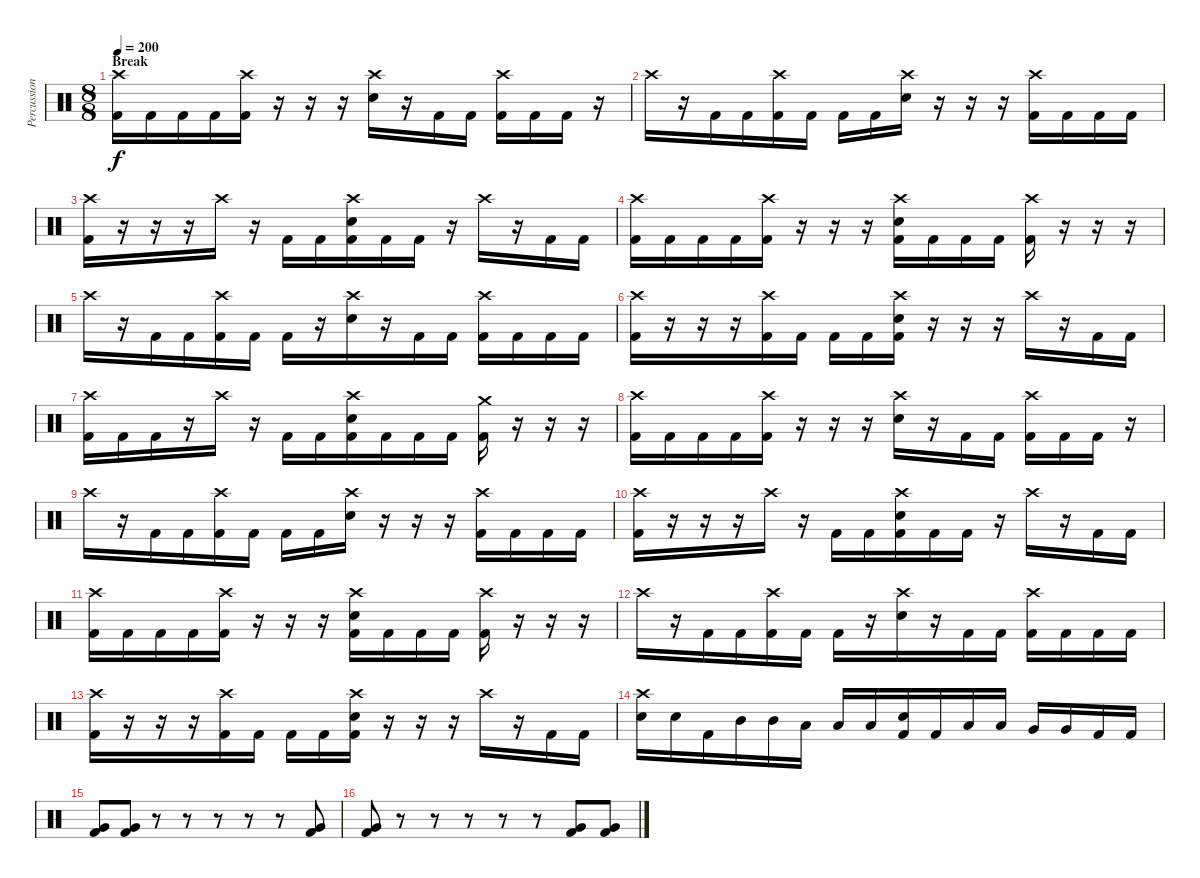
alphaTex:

\track ("Percussions" "Percussion") {instrument percussion}
\staff {score}
\articulation defaults
\ts (8 8)
\section ("" "Break")
\tempo 200
\clef neutral
\ks c
("Crash high (hit)" "Kick (hit) 2").16{dy f} "Kick (hit) 2".16 "Kick (hit) 2".16 "Kick (hit) 2".16 ("Crash high (hit)" "Kick (hit) 2").16 r.16 r.16 r.16 ("Crash high (hit)" "Electric Snare (hit)").16 r.16 "Kick (hit) 2".16 "Kick (hit) 2".16 ("Crash high (hit)" "Kick (hit) 2").16 "Kick (hit) 2".16 "Kick (hit) 2".16 r.16 |
"Crash high (hit)".16 r.16 "Kick (hit) 2".16 "Kick (hit) 2".16 ("Crash high (hit)" "Kick (hit) 2").16 "Kick (hit) 2".16 "Kick (hit) 2".16 "Kick (hit) 2".16 ("Crash high (hit)" "Electric Snare (hit)").16 r.16 r.16 r.16 ("Crash high (hit)" "Kick (hit) 2").16 "Kick (hit) 2".16 "Kick (hit) 2".16 "Kick (hit) 2".16 |
("Crash high (hit)" "Kick (hit) 2").16 r.16 r.16 r.16 "Crash high (hit)".16 r.16 "Kick (hit) 2".16 "Kick (hit) 2".16 ("Crash high (hit)" "Electric Snare (hit)" "Kick (hit) 2").16 "Kick (hit) 2".16 "Kick (hit) 2".16 r.16 "Crash high (hit)".16 r.16 "Kick (hit) 2".16 "Kick (hit) 2".16 |
("Crash high (hit)" "Kick (hit) 2").16 "Kick (hit) 2".16 "Kick (hit) 2".16 "Kick (hit) 2".16 ("Crash high (hit)" "Kick (hit) 2").16 r.16 r.16 r.16 ("Crash high (hit)" "Electric Snare (hit)" "Kick (hit) 2").16 "Kick (hit) 2".16 "Kick (hit) 2".16 "Kick (hit) 2".16 ("Crash high (hit)" "Kick (hit) 2").16 r.16 r.16 r.16 |
"Crash high (hit)".16 r.16 "Kick (hit) 2".16 "Kick (hit) 2".16 ("Crash high (hit)" "Kick (hit) 2").16 "Kick (hit) 2".16 "Kick (hit) 2".16 r.16 ("Crash high (hit)" "Electric Snare (hit)").16 r.16 "Kick (hit) 2".16 "Kick (hit) 2".16 ("Crash high (hit)" "Kick (hit) 2").16 "Kick (hit) 2".16 "Kick (hit) 2".16 "Kick (hit) 2".16 |
("Crash high (hit)" "Kick (hit) 2").16 r.16 r.16 r.16 ("Crash high (hit)" "Kick (hit) 2").16 "Kick (hit) 2".16 "Kick (hit) 2".16 "Kick (hit) 2".16 ("Crash high (hit)" "Electric Snare (hit)" "Kick (hit) 2").16 r.16 r.16 r.16 "Crash high (hit)".16 r.16 "Kick (hit) 2".16 "Kick (hit) 2".16 |
("Crash high (hit)" "Kick (hit) 2").16 "Kick (hit) 2".16 "Kick (hit) 2".16 r.16 "Crash high (hit)".16 r.16 "Kick (hit) 2".16 "Kick (hit) 2".16 ("Crash high (hit)" "Electric Snare (hit)" "Kick (hit) 2").16 "Kick (hit) 2".16 "Kick (hit) 2".16 "Kick (hit) 2".16 ("Crash medium (hit)" "Kick (hit) 2").16 r.16 r.16 r.16 |
("Crash high (hit)" "Kick (hit) 2").16 "Kick (hit) 2".16 "Kick (hit) 2".16 "Kick (hit) 2".16 ("Crash high (hit)" "Kick (hit) 2").16 r.16 r.16 r.16 ("Crash high (hit)" "Electric Snare (hit)").16 r.16 "Kick (hit) 2".16 "Kick (hit) 2".16 ("Crash high (hit)" "Kick (hit) 2").16 "Kick (hit) 2".16 "Kick (hit) 2".16 r.16 |
"Crash high (hit)".16 r.16 "Kick (hit) 2".16 "Kick (hit) 2".16 ("Crash high (hit)" "Kick (hit) 2").16 "Kick (hit) 2".16 "Kick (hit) 2".16 "Kick (hit) 2".16 ("Crash high (hit)" "Electric Snare (hit)").16 r.16 r.16 r.16 ("Crash high (hit)" "Kick (hit) 2").16 "Kick (hit) 2".16 "Kick (hit) 2".16 "Kick (hit) 2".16 |
("Crash high (hit)" "Kick (hit) 2").16 r.16 r.16 r.16 "Crash high (hit)".16 r.16 "Kick (hit) 2".16 "Kick (hit) 2".16 ("Crash high (hit)" "Electric Snare (hit)" "Kick (hit) 2").16 "Kick (hit) 2".16 "Kick (hit) 2".16 r.16 "Crash high (hit)".16 r.16 "Kick (hit) 2".16 "Kick (hit) 2".16 |
("Crash high (hit)" "Kick (hit) 2").16 "Kick (hit) 2".16 "Kick (hit) 2".16 "Kick (hit) 2".16 ("Crash high (hit)" "Kick (hit) 2").16 r.16 r.16 r.16 ("Crash high (hit)" "Electric Snare (hit)" "Kick (hit) 2").16 "Kick (hit) 2".16 "Kick (hit) 2".16 "Kick (hit) 2".16 ("Crash high (hit)" "Kick (hit) 2").16 r.16 r.16 r.16 |
"Crash high (hit)".16 r.16 "Kick (hit) 2".16 "Kick (hit) 2".16 ("Crash high (hit)" "Kick (hit) 2").16 "Kick (hit) 2".16 "Kick (hit) 2".16 r.16 ("Crash high (hit)" "Electric Snare (hit)").16 r.16 "Kick (hit) 2".16 "Kick (hit) 2".16 ("Crash high (hit)" "Kick (hit) 2").16 "Kick (hit) 2".16 "Kick (hit) 2".16 "Kick (hit) 2".16 |
("Crash high (hit)" "Kick (hit) 2").16 r.16 r.16 r.16 ("Crash high (hit)" "Kick (hit) 2").16 "Kick (hit) 2".16 "Kick (hit) 2".16 "Kick (hit) 2".16 ("Crash high (hit)" "Electric Snare (hit)" "Kick (hit) 2").16 r.16 r.16 r.16 "Crash high (hit)".16 r.16 "Kick (hit) 2".16 "Kick (hit) 2".16 |
("Crash high (hit)" "Electric Snare (hit)").16 "Electric Snare (hit)".16 "Kick (hit) 2".16 "Mid Tom (hit)".16 "Mid Tom (hit)".16 "Low Tom (hit)".16 "Low Tom (hit)".16 "Low Floor Tom (hit)".16 ("Electric Snare (hit)" "Kick (hit) 2").16 "Kick (hit) 2".16 "Low Tom (hit)".16 "Low Tom (hit)".16 "Very Low Tom (hit)".16 "Very Low Tom (hit)".16 "Kick (hit) 2".16 "Kick (hit) 2".16 |
("Very Low Tom (hit)" "Kick (hit) 2").8 ("Very Low Tom (hit)" "Kick (hit) 2").8 r.8 r.8 r.8 r.8 r.8 ("Very Low Tom (hit)" "Kick (hit) 2").8 |
("Very Low Tom (hit)" "Kick (hit) 2").8 r.8 r.8 r.8 r.8 r.8 ("Very Low Tom (hit)" "Kick (hit) 2").8 ("Very Low Tom (hit)" "Kick (hit) 2").8
